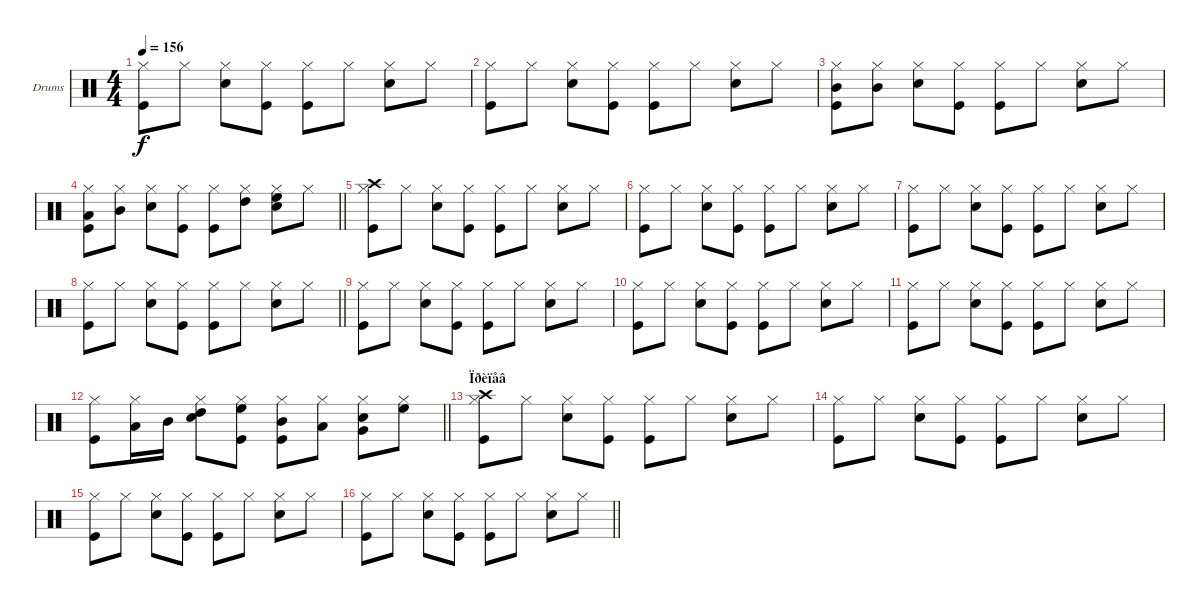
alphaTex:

\bracketExtendMode groupsimilarinstruments
\firstSystemTrackNameOrientation horizontal
\otherSystemsTrackNameOrientation horizontal
\track ("Drumkit" "Drums") {instrument percussion}
\staff {score}
\articulation defaults
\ts (4 4)
\tempo 156
\clef neutral
\ks c
("Hi-Hat (closed)" "Kick (hit)").8{dy f} "Hi-Hat (closed)".8 ("Hi-Hat (closed)" "Snare (hit) 2").8 ("Hi-Hat (closed)" "Kick (hit)").8 ("Hi-Hat (closed)" "Kick (hit)").8 "Hi-Hat (closed)".8 ("Hi-Hat (closed)" "Snare (hit) 2").8 "Hi-Hat (closed)".8 |
("Hi-Hat (closed)" "Kick (hit)").8 "Hi-Hat (closed)".8 ("Hi-Hat (closed)" "Snare (hit) 2").8 ("Hi-Hat (closed)" "Kick (hit)").8 ("Hi-Hat (closed)" "Kick (hit)").8 "Hi-Hat (closed)".8 ("Hi-Hat (closed)" "Snare (hit) 2").8 "Hi-Hat (closed)".8 |
("Hi-Hat (closed)" "Kick (hit)" "Mid Tom (hit)").8 ("Hi-Hat (closed)" "Mid Tom (hit)").8 ("Hi-Hat (closed)" "Snare (hit) 2").8 ("Hi-Hat (closed)" "Kick (hit)").8 ("Hi-Hat (closed)" "Kick (hit)").8 "Hi-Hat (closed)".8 ("Hi-Hat (closed)" "Snare (hit) 2").8 "Hi-Hat (closed)".8 |
\barLineRight lightlight
("Hi-Hat (closed)" "Kick (hit)" "Low Tom (hit)").8 ("Hi-Hat (closed)" "Mid Tom (hit)").8 ("Hi-Hat (closed)" "Snare (hit) 2").8 ("Hi-Hat (closed)" "Kick (hit)").8 ("Hi-Hat (closed)" "Kick (hit)").8 ("Hi-Hat (closed)" "High Tom (hit)").8 ("Hi-Hat (closed)" "Snare (hit) 2" "High Floor Tom (hit)").8 "Hi-Hat (closed)".8 |
("Hi-Hat (closed)" "Kick (hit)" "Crash high (hit)").8 "Hi-Hat (closed)".8 ("Hi-Hat (closed)" "Snare (hit) 2").8 ("Hi-Hat (closed)" "Kick (hit)").8 ("Hi-Hat (closed)" "Kick (hit)").8 "Hi-Hat (closed)".8 ("Hi-Hat (closed)" "Snare (hit) 2").8 "Hi-Hat (closed)".8 |
("Hi-Hat (closed)" "Kick (hit)").8 "Hi-Hat (closed)".8 ("Hi-Hat (closed)" "Snare (hit) 2").8 ("Hi-Hat (closed)" "Kick (hit)").8 ("Hi-Hat (closed)" "Kick (hit)").8 "Hi-Hat (closed)".8 ("Hi-Hat (closed)" "Snare (hit) 2").8 "Hi-Hat (closed)".8 |
("Hi-Hat (closed)" "Kick (hit)").8 "Hi-Hat (closed)".8 ("Hi-Hat (closed)" "Snare (hit) 2").8 ("Hi-Hat (closed)" "Kick (hit)").8 ("Hi-Hat (closed)" "Kick (hit)").8 "Hi-Hat (closed)".8 ("Hi-Hat (closed)" "Snare (hit) 2").8 "Hi-Hat (closed)".8 |
\barLineRight lightlight
("Hi-Hat (closed)" "Kick (hit)").8 "Hi-Hat (closed)".8 ("Hi-Hat (closed)" "Snare (hit) 2").8 ("Hi-Hat (closed)" "Kick (hit)").8 ("Hi-Hat (closed)" "Kick (hit)").8 "Hi-Hat (closed)".8 ("Hi-Hat (closed)" "Snare (hit) 2").8 "Hi-Hat (closed)".8 |
("Hi-Hat (closed)" "Kick (hit)").8 "Hi-Hat (closed)".8 ("Hi-Hat (closed)" "Snare (hit) 2").8 ("Hi-Hat (closed)" "Kick (hit)").8 ("Hi-Hat (closed)" "Kick (hit)").8 "Hi-Hat (closed)".8 ("Hi-Hat (closed)" "Snare (hit) 2").8 "Hi-Hat (closed)".8 |
("Hi-Hat (closed)" "Kick (hit)").8 "Hi-Hat (closed)".8 ("Hi-Hat (closed)" "Snare (hit) 2").8 ("Hi-Hat (closed)" "Kick (hit)").8 ("Hi-Hat (closed)" "Kick (hit)").8 "Hi-Hat (closed)".8 ("Hi-Hat (closed)" "Snare (hit) 2").8 "Hi-Hat (closed)".8 |
("Hi-Hat (closed)" "Kick (hit)").8 "Hi-Hat (closed)".8 ("Hi-Hat (closed)" "Snare (hit) 2").8 ("Hi-Hat (closed)" "Kick (hit)").8 ("Hi-Hat (closed)" "Kick (hit)").8 "Hi-Hat (closed)".8 ("Hi-Hat (closed)" "Snare (hit) 2").8 "Hi-Hat (closed)".8 |
\barLineRight lightlight
("Hi-Hat (closed)" "Kick (hit)").8 ("Hi-Hat (closed)" "Low Tom (hit)").16 "Mid Tom (hit)".16 ("Hi-Hat (closed)" "Snare (hit) 2" "High Tom (hit)").8 ("Hi-Hat (closed)" "Kick (hit)" "High Floor Tom (hit)").8 ("Hi-Hat (closed)" "Kick (hit)" "Mid Tom (hit)").8 ("Hi-Hat (closed)" "Low Tom (hit)").8 ("Hi-Hat (closed)" "Snare (hit) 2" "Very Low Tom (hit)").8 ("Hi-Hat (closed)" "High Floor Tom (hit)").8 |
\section ("" "Ïðèïåâ")
("Hi-Hat (closed)" "Kick (hit)" "Crash high (hit)").8 "Hi-Hat (closed)".8 ("Hi-Hat (closed)" "Snare (hit) 2").8 ("Hi-Hat (closed)" "Kick (hit)").8 ("Hi-Hat (closed)" "Kick (hit)").8 "Hi-Hat (closed)".8 ("Hi-Hat (closed)" "Snare (hit) 2").8 "Hi-Hat (closed)".8 |
("Hi-Hat (closed)" "Kick (hit)").8 "Hi-Hat (closed)".8 ("Hi-Hat (closed)" "Snare (hit) 2").8 ("Hi-Hat (closed)" "Kick (hit)").8 ("Hi-Hat (closed)" "Kick (hit)").8 "Hi-Hat (closed)".8 ("Hi-Hat (closed)" "Snare (hit) 2").8 "Hi-Hat (closed)".8 |
("Hi-Hat (closed)" "Kick (hit)").8 "Hi-Hat (closed)".8 ("Hi-Hat (closed)" "Snare (hit) 2").8 ("Hi-Hat (closed)" "Kick (hit)").8 ("Hi-Hat (closed)" "Kick (hit)").8 "Hi-Hat (closed)".8 ("Hi-Hat (closed)" "Snare (hit) 2").8 "Hi-Hat (closed)".8 |
\barLineRight lightlight
("Hi-Hat (closed)" "Kick (hit)").8 "Hi-Hat (closed)".8 ("Hi-Hat (closed)" "Snare (hit) 2").8 ("Hi-Hat (closed)" "Kick (hit)").8 ("Hi-Hat (closed)" "Kick (hit)").8 "Hi-Hat (closed)".8 ("Hi-Hat (closed)" "Snare (hit) 2").8 "Hi-Hat (closed)".8
